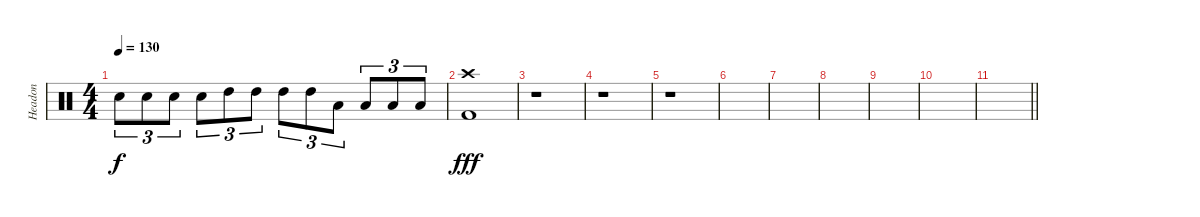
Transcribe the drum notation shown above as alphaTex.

\track ("Headon" "Headon") {instrument percussion}
\staff {score}
\articulation defaults
\ts (4 4)
\tempo 130
\clef neutral
\ks c "Snare (hit) 2".8{tu (3 2) dy f} "Snare (hit) 2".8{tu (3 2)} "Snare (hit) 2".8{tu (3 2)} "Snare (hit) 2".8{tu (3 2)} "High Tom (hit)".8{tu (3 2)} "High Tom (hit)".8{tu (3 2)} "High Tom (hit)".8{tu (3 2)} "High Tom (hit)".8{tu (3 2)} "Low Tom (hit)".8{tu (3 2)} "Low Tom (hit)".8{tu (3 2)} "Low Floor Tom (hit)".8{tu (3 2)} "Low Floor Tom (hit)".8{tu (3 2)}
|
("Crash high (hit)" "Kick (hit) 2").1{dy fff} |
r.1 |
r.1 |
r.1 |
|
|
|
|
|
\barLineRight lightlight
